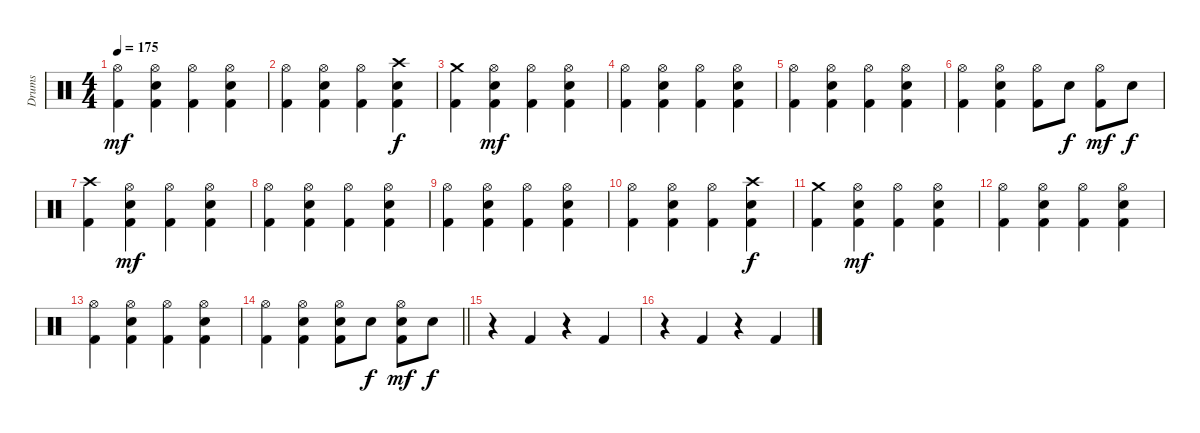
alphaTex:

\track ("Drums" "Drums") {instrument percussion}
\staff {score}
\articulation defaults
\ts (4 4)
\tempo 175
\clef neutral
\ks c
("Hi-Hat (open)" "Kick (hit) 2").4{dy mf} ("Hi-Hat (open)" "Electric Snare (hit)" "Kick (hit) 2").4 ("Hi-Hat (open)" "Kick (hit) 2").4 ("Hi-Hat (open)" "Electric Snare (hit)" "Kick (hit) 2").4 |
("Hi-Hat (open)" "Kick (hit) 2").4 ("Hi-Hat (open)" "Electric Snare (hit)" "Kick (hit) 2").4 ("Hi-Hat (open)" "Kick (hit) 2").4 ("Crash high (hit)" "Electric Snare (hit)" "Kick (hit) 2").4{dy f} |
("Crash medium (hit)" "Kick (hit) 2").4 ("Hi-Hat (open)" "Electric Snare (hit)" "Kick (hit) 2").4{dy mf} ("Hi-Hat (open)" "Kick (hit) 2").4 ("Hi-Hat (open)" "Electric Snare (hit)" "Kick (hit) 2").4 |
("Hi-Hat (open)" "Kick (hit) 2").4 ("Hi-Hat (open)" "Electric Snare (hit)" "Kick (hit) 2").4 ("Hi-Hat (open)" "Kick (hit) 2").4 ("Hi-Hat (open)" "Electric Snare (hit)" "Kick (hit) 2").4 |
("Hi-Hat (open)" "Kick (hit) 2").4 ("Hi-Hat (open)" "Electric Snare (hit)" "Kick (hit) 2").4 ("Hi-Hat (open)" "Kick (hit) 2").4 ("Hi-Hat (open)" "Electric Snare (hit)" "Kick (hit) 2").4 |
("Hi-Hat (open)" "Kick (hit) 2").4 ("Hi-Hat (open)" "Electric Snare (hit)" "Kick (hit) 2").4 ("Hi-Hat (open)" "Kick (hit) 2").8 "Electric Snare (hit)".8{dy f} ("Hi-Hat (open)" "Kick (hit) 2").8{dy mf} "Electric Snare (hit)".8{dy f} |
("Crash high (hit)" "Kick (hit) 2").4 ("Hi-Hat (open)" "Electric Snare (hit)" "Kick (hit) 2").4{dy mf} ("Hi-Hat (open)" "Kick (hit) 2").4 ("Hi-Hat (open)" "Electric Snare (hit)" "Kick (hit) 2").4 |
("Hi-Hat (open)" "Kick (hit) 2").4 ("Hi-Hat (open)" "Electric Snare (hit)" "Kick (hit) 2").4 ("Hi-Hat (open)" "Kick (hit) 2").4 ("Hi-Hat (open)" "Electric Snare (hit)" "Kick (hit) 2").4 |
("Hi-Hat (open)" "Kick (hit) 2").4 ("Hi-Hat (open)" "Electric Snare (hit)" "Kick (hit) 2").4 ("Hi-Hat (open)" "Kick (hit) 2").4 ("Hi-Hat (open)" "Electric Snare (hit)" "Kick (hit) 2").4 |
("Hi-Hat (open)" "Kick (hit) 2").4 ("Hi-Hat (open)" "Electric Snare (hit)" "Kick (hit) 2").4 ("Hi-Hat (open)" "Kick (hit) 2").4 ("Crash high (hit)" "Electric Snare (hit)" "Kick (hit) 2").4{dy f} |
("Crash medium (hit)" "Kick (hit) 2").4 ("Hi-Hat (open)" "Electric Snare (hit)" "Kick (hit) 2").4{dy mf} ("Hi-Hat (open)" "Kick (hit) 2").4 ("Hi-Hat (open)" "Electric Snare (hit)" "Kick (hit) 2").4 |
("Hi-Hat (open)" "Kick (hit) 2").4 ("Hi-Hat (open)" "Electric Snare (hit)" "Kick (hit) 2").4 ("Hi-Hat (open)" "Kick (hit) 2").4 ("Hi-Hat (open)" "Electric Snare (hit)" "Kick (hit) 2").4 |
("Hi-Hat (open)" "Kick (hit) 2").4 ("Hi-Hat (open)" "Electric Snare (hit)" "Kick (hit) 2").4 ("Hi-Hat (open)" "Kick (hit) 2").4 ("Hi-Hat (open)" "Electric Snare (hit)" "Kick (hit) 2").4 |
\barLineRight lightlight
("Hi-Hat (open)" "Kick (hit) 2").4 ("Hi-Hat (open)" "Electric Snare (hit)" "Kick (hit) 2").4 ("Hi-Hat (open)" "Electric Snare (hit)" "Kick (hit) 2").8 "Electric Snare (hit)".8{dy f} ("Hi-Hat (open)" "Electric Snare (hit)" "Kick (hit) 2").8{dy mf} "Electric Snare (hit)".8{dy f} |
r.4 "Kick (hit) 2".4 r.4 "Kick (hit) 2".4 |
r.4 "Kick (hit) 2".4 r.4 "Kick (hit) 2".4
